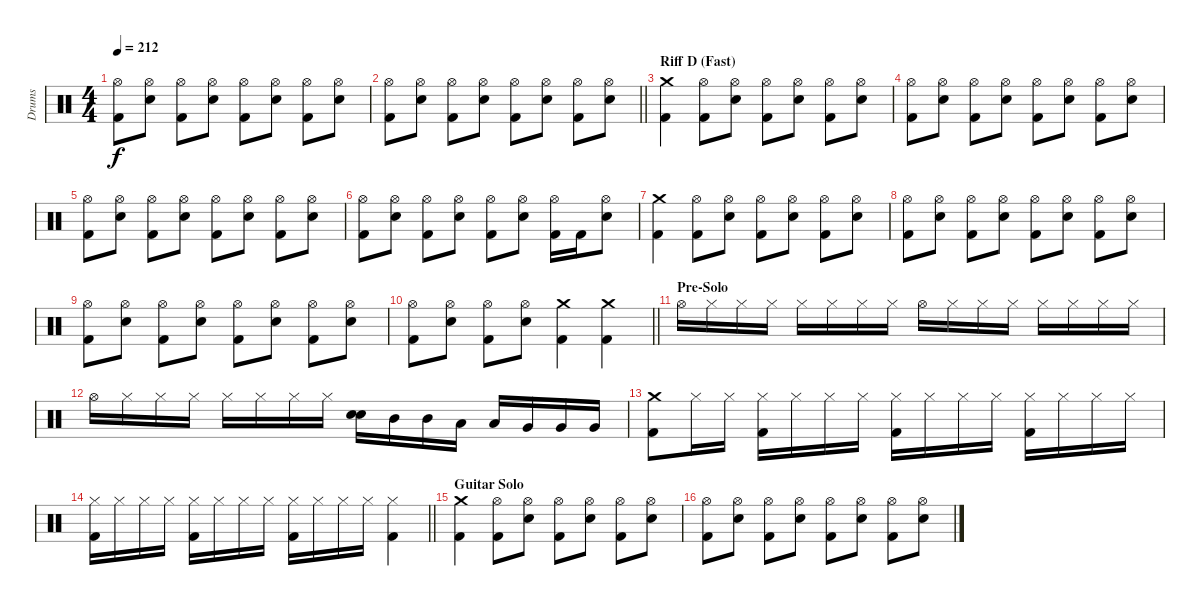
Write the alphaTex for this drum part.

\track ("Drums" "Drums") {instrument percussion}
\staff {score}
\articulation defaults
\ts (4 4)
\tempo 212
\clef neutral
\ks c
("Hi-Hat (open)" "Kick (hit) 2").8{dy f} ("Hi-Hat (open)" "Electric Snare (hit)").8 ("Hi-Hat (open)" "Kick (hit) 2").8 ("Hi-Hat (open)" "Electric Snare (hit)").8 ("Hi-Hat (open)" "Kick (hit) 2").8 ("Hi-Hat (open)" "Electric Snare (hit)").8 ("Hi-Hat (open)" "Kick (hit) 2").8 ("Hi-Hat (open)" "Electric Snare (hit)").8 |
\barLineRight lightlight
("Hi-Hat (open)" "Kick (hit) 2").8 ("Hi-Hat (open)" "Electric Snare (hit)").8 ("Hi-Hat (open)" "Kick (hit) 2").8 ("Hi-Hat (open)" "Electric Snare (hit)").8 ("Hi-Hat (open)" "Kick (hit) 2").8 ("Hi-Hat (open)" "Electric Snare (hit)").8 ("Hi-Hat (open)" "Kick (hit) 2").8 ("Hi-Hat (open)" "Electric Snare (hit)").8 |
\section ("" "Riff D (Fast)")
("Crash medium (hit)" "Kick (hit) 2").4 ("Hi-Hat (open)" "Kick (hit) 2").8 ("Hi-Hat (open)" "Electric Snare (hit)").8 ("Hi-Hat (open)" "Kick (hit) 2").8 ("Hi-Hat (open)" "Electric Snare (hit)").8 ("Hi-Hat (open)" "Kick (hit) 2").8 ("Hi-Hat (open)" "Electric Snare (hit)").8 |
("Hi-Hat (open)" "Kick (hit) 2").8 ("Hi-Hat (open)" "Electric Snare (hit)").8 ("Hi-Hat (open)" "Kick (hit) 2").8 ("Hi-Hat (open)" "Electric Snare (hit)").8 ("Hi-Hat (open)" "Kick (hit) 2").8 ("Hi-Hat (open)" "Electric Snare (hit)").8 ("Hi-Hat (open)" "Kick (hit) 2").8 ("Hi-Hat (open)" "Electric Snare (hit)").8 |
("Hi-Hat (open)" "Kick (hit) 2").8 ("Hi-Hat (open)" "Electric Snare (hit)").8 ("Hi-Hat (open)" "Kick (hit) 2").8 ("Hi-Hat (open)" "Electric Snare (hit)").8 ("Hi-Hat (open)" "Kick (hit) 2").8 ("Hi-Hat (open)" "Electric Snare (hit)").8 ("Hi-Hat (open)" "Kick (hit) 2").8 ("Hi-Hat (open)" "Electric Snare (hit)").8 |
("Hi-Hat (open)" "Kick (hit) 2").8 ("Hi-Hat (open)" "Electric Snare (hit)").8 ("Hi-Hat (open)" "Kick (hit) 2").8 ("Hi-Hat (open)" "Electric Snare (hit)").8 ("Hi-Hat (open)" "Kick (hit) 2").8 ("Hi-Hat (open)" "Electric Snare (hit)").8 ("Hi-Hat (open)" "Kick (hit) 2").16 "Kick (hit) 2".16 ("Hi-Hat (open)" "Electric Snare (hit)").8 |
("Crash medium (hit)" "Kick (hit) 2").4 ("Hi-Hat (open)" "Kick (hit) 2").8 ("Hi-Hat (open)" "Electric Snare (hit)").8 ("Hi-Hat (open)" "Kick (hit) 2").8 ("Hi-Hat (open)" "Electric Snare (hit)").8 ("Hi-Hat (open)" "Kick (hit) 2").8 ("Hi-Hat (open)" "Electric Snare (hit)").8 |
("Hi-Hat (open)" "Kick (hit) 2").8 ("Hi-Hat (open)" "Electric Snare (hit)").8 ("Hi-Hat (open)" "Kick (hit) 2").8 ("Hi-Hat (open)" "Electric Snare (hit)").8 ("Hi-Hat (open)" "Kick (hit) 2").8 ("Hi-Hat (open)" "Electric Snare (hit)").8 ("Hi-Hat (open)" "Kick (hit) 2").8 ("Hi-Hat (open)" "Electric Snare (hit)").8 |
("Hi-Hat (open)" "Kick (hit) 2").8 ("Hi-Hat (open)" "Electric Snare (hit)").8 ("Hi-Hat (open)" "Kick (hit) 2").8 ("Hi-Hat (open)" "Electric Snare (hit)").8 ("Hi-Hat (open)" "Kick (hit) 2").8 ("Hi-Hat (open)" "Electric Snare (hit)").8 ("Hi-Hat (open)" "Kick (hit) 2").8 ("Hi-Hat (open)" "Electric Snare (hit)").8 |
\barLineRight lightlight
("Hi-Hat (open)" "Kick (hit) 2").8 ("Hi-Hat (open)" "Electric Snare (hit)").8 ("Hi-Hat (open)" "Kick (hit) 2").8 ("Hi-Hat (open)" "Electric Snare (hit)").8 ("Crash medium (hit)" "Kick (hit) 2").4 ("Crash medium (hit)" "Kick (hit) 2").4 |
\section ("" "Pre-Solo")
"Hi-Hat (open)".16 "Hi-Hat (closed)".16 "Hi-Hat (closed)".16 "Hi-Hat (closed)".16 "Hi-Hat (closed)".16 "Hi-Hat (closed)".16 "Hi-Hat (closed)".16 "Hi-Hat (closed)".16 "Hi-Hat (open)".16 "Hi-Hat (closed)".16 "Hi-Hat (closed)".16 "Hi-Hat (closed)".16 "Hi-Hat (closed)".16 "Hi-Hat (closed)".16 "Hi-Hat (closed)".16 "Hi-Hat (closed)".16 |
"Hi-Hat (open)".16 "Hi-Hat (closed)".16 "Hi-Hat (closed)".16 "Hi-Hat (closed)".16 "Hi-Hat (closed)".16 "Hi-Hat (closed)".16 "Hi-Hat (closed)".16 "Hi-Hat (closed)".16 ("Electric Snare (hit)" "Electric Snare (hit)").16 "Mid Tom (hit)".16 "Mid Tom (hit)".16 "Low Tom (hit)".16 "Low Tom (hit)".16 "Very Low Tom (hit)".16 "Very Low Tom (hit)".16 "Very Low Tom (hit)".16 |
("Crash medium (hit)" "Kick (hit) 2").8 "Hi-Hat (closed)".16 "Hi-Hat (closed)".16 ("Hi-Hat (closed)" "Kick (hit) 2").16 "Hi-Hat (closed)".16 "Hi-Hat (closed)".16 "Hi-Hat (closed)".16 ("Hi-Hat (closed)" "Kick (hit) 2").16 "Hi-Hat (closed)".16 "Hi-Hat (closed)".16 "Hi-Hat (closed)".16 ("Hi-Hat (closed)" "Kick (hit) 2").16 "Hi-Hat (closed)".16 "Hi-Hat (closed)".16 "Hi-Hat (closed)".16 |
\barLineRight lightlight
("Hi-Hat (closed)" "Kick (hit) 2").16 "Hi-Hat (closed)".16 "Hi-Hat (closed)".16 "Hi-Hat (closed)".16 ("Hi-Hat (closed)" "Kick (hit) 2").16 "Hi-Hat (closed)".16 "Hi-Hat (closed)".16 "Hi-Hat (closed)".16 ("Hi-Hat (closed)" "Kick (hit) 2").16 "Hi-Hat (closed)".16 "Hi-Hat (closed)".16 "Hi-Hat (closed)".16 ("Hi-Hat (closed)" "Kick (hit) 2").4 |
\section ("" "Guitar Solo")
("Crash medium (hit)" "Kick (hit) 2").4 ("Hi-Hat (open)" "Kick (hit) 2").8 ("Hi-Hat (open)" "Electric Snare (hit)").8 ("Hi-Hat (open)" "Kick (hit) 2").8 ("Hi-Hat (open)" "Electric Snare (hit)").8 ("Hi-Hat (open)" "Kick (hit) 2").8 ("Hi-Hat (open)" "Electric Snare (hit)").8 |
("Hi-Hat (open)" "Kick (hit) 2").8 ("Hi-Hat (open)" "Electric Snare (hit)").8 ("Hi-Hat (open)" "Kick (hit) 2").8 ("Hi-Hat (open)" "Electric Snare (hit)").8 ("Hi-Hat (open)" "Kick (hit) 2").8 ("Hi-Hat (open)" "Electric Snare (hit)").8 ("Hi-Hat (open)" "Kick (hit) 2").8 ("Hi-Hat (open)" "Electric Snare (hit)").8
